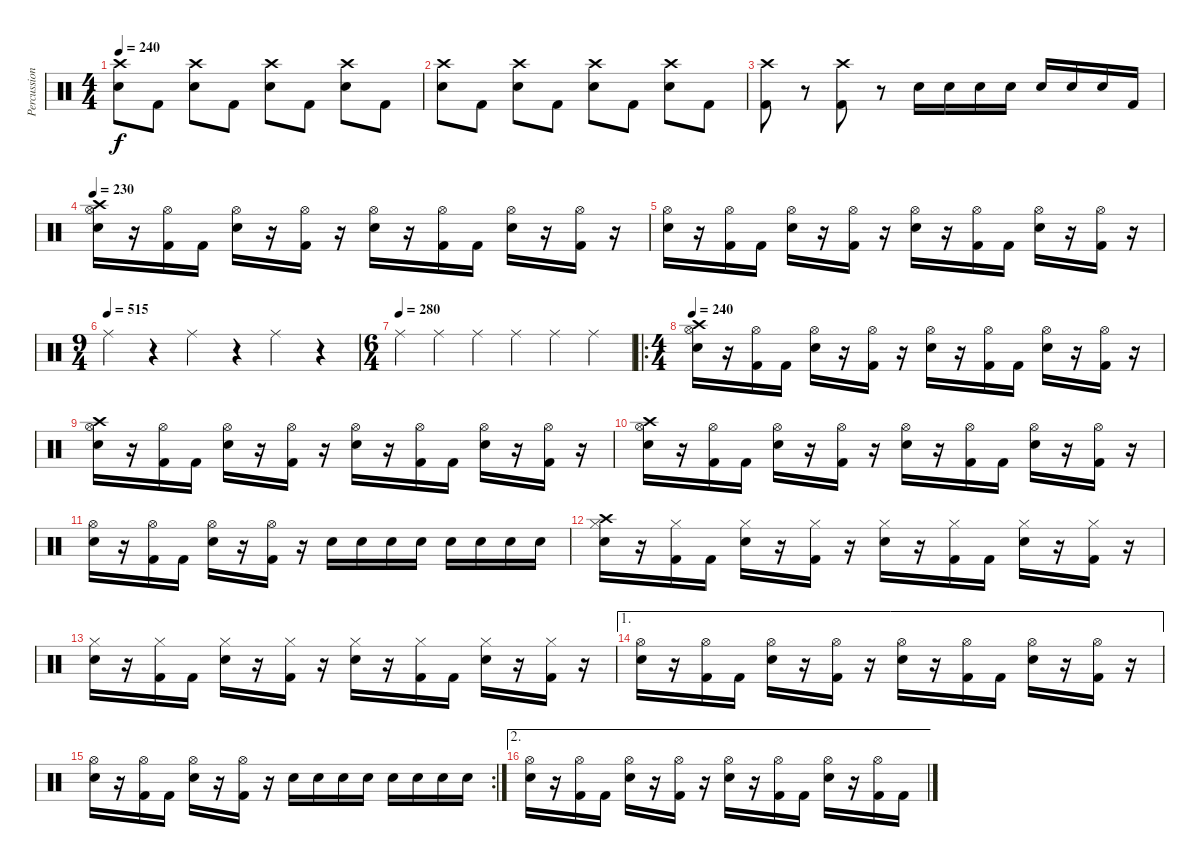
\track ("Percussion" "Percussion") {instrument percussion}
\staff {score}
\articulation defaults
\ts (4 4)
\tempo 240
\clef neutral
\ks c
("Crash high (hit)" "Electric Snare (hit)").8{dy f} "Kick (hit) 2".8 ("Crash high (hit)" "Electric Snare (hit)").8 "Kick (hit) 2".8 ("Crash high (hit)" "Electric Snare (hit)").8 "Kick (hit) 2".8 ("Crash high (hit)" "Electric Snare (hit)").8 "Kick (hit) 2".8 |
("Crash high (hit)" "Electric Snare (hit)").8 "Kick (hit) 2".8 ("Crash high (hit)" "Electric Snare (hit)").8 "Kick (hit) 2".8 ("Crash high (hit)" "Electric Snare (hit)").8 "Kick (hit) 2".8 ("Crash high (hit)" "Electric Snare (hit)").8 "Kick (hit) 2".8 |
("Crash high (hit)" "Kick (hit) 2").8 r.8 ("Crash high (hit)" "Kick (hit) 2").8 r.8 "Electric Snare (hit)".16 "Electric Snare (hit)".16 "Electric Snare (hit)".16 "Electric Snare (hit)".16 "Electric Snare (hit)".16 "Electric Snare (hit)".16 "Electric Snare (hit)".16 "Kick (hit) 2".16 |
\tempo 230
("Crash high (hit)" "Hi-Hat (open)" "Electric Snare (hit)").16 r.16 ("Hi-Hat (open)" "Kick (hit) 2").16 "Kick (hit) 2".16 ("Hi-Hat (open)" "Electric Snare (hit)").16 r.16 ("Hi-Hat (open)" "Kick (hit) 2").16 r.16 ("Hi-Hat (open)" "Electric Snare (hit)").16 r.16 ("Hi-Hat (open)" "Kick (hit) 2").16 "Kick (hit) 2".16 ("Hi-Hat (open)" "Electric Snare (hit)").16 r.16 ("Hi-Hat (open)" "Kick (hit) 2").16 r.16 |
("Hi-Hat (open)" "Electric Snare (hit)").16 r.16 ("Hi-Hat (open)" "Kick (hit) 2").16 "Kick (hit) 2".16 ("Hi-Hat (open)" "Electric Snare (hit)").16 r.16 ("Hi-Hat (open)" "Kick (hit) 2").16 r.16 ("Hi-Hat (open)" "Electric Snare (hit)").16 r.16 ("Hi-Hat (open)" "Kick (hit) 2").16 "Kick (hit) 2".16 ("Hi-Hat (open)" "Electric Snare (hit)").16 r.16 ("Hi-Hat (open)" "Kick (hit) 2").16 r.16 |
\ts (9 4)
\tempo (515)
"Ride (middle)".2 r.4 "Ride (middle)".2 r.4 "Ride (middle)".2 r.4 |
\ts (6 4)
\tempo (280)
"Ride (middle)".4 "Ride (middle)".4 "Ride (middle)".4 "Ride (middle)".4 "Ride (middle)".4 "Ride (middle)".4 |
\ro
\ts (4 4)
\tempo 240
("Crash high (hit)" "Hi-Hat (open)" "Electric Snare (hit)").16 r.16 ("Hi-Hat (open)" "Kick (hit) 2").16 "Kick (hit) 2".16 ("Hi-Hat (open)" "Electric Snare (hit)").16 r.16 ("Hi-Hat (open)" "Kick (hit) 2").16 r.16 ("Hi-Hat (open)" "Electric Snare (hit)").16 r.16 ("Hi-Hat (open)" "Kick (hit) 2").16 "Kick (hit) 2".16 ("Hi-Hat (open)" "Electric Snare (hit)").16 r.16 ("Hi-Hat (open)" "Kick (hit) 2").16 r.16 |
("Crash high (hit)" "Hi-Hat (open)" "Electric Snare (hit)").16 r.16 ("Hi-Hat (open)" "Kick (hit) 2").16 "Kick (hit) 2".16 ("Hi-Hat (open)" "Electric Snare (hit)").16 r.16 ("Hi-Hat (open)" "Kick (hit) 2").16 r.16 ("Hi-Hat (open)" "Electric Snare (hit)").16 r.16 ("Hi-Hat (open)" "Kick (hit) 2").16 "Kick (hit) 2".16 ("Hi-Hat (open)" "Electric Snare (hit)").16 r.16 ("Hi-Hat (open)" "Kick (hit) 2").16 r.16 |
("Crash high (hit)" "Hi-Hat (open)" "Electric Snare (hit)").16 r.16 ("Hi-Hat (open)" "Kick (hit) 2").16 "Kick (hit) 2".16 ("Hi-Hat (open)" "Electric Snare (hit)").16 r.16 ("Hi-Hat (open)" "Kick (hit) 2").16 r.16 ("Hi-Hat (open)" "Electric Snare (hit)").16 r.16 ("Hi-Hat (open)" "Kick (hit) 2").16 "Kick (hit) 2".16 ("Hi-Hat (open)" "Electric Snare (hit)").16 r.16 ("Hi-Hat (open)" "Kick (hit) 2").16 r.16 |
("Hi-Hat (open)" "Electric Snare (hit)").16 r.16 ("Hi-Hat (open)" "Kick (hit) 2").16 "Kick (hit) 2".16 ("Hi-Hat (open)" "Electric Snare (hit)").16 r.16 ("Hi-Hat (open)" "Kick (hit) 2").16 r.16 "Electric Snare (hit)".16 "Electric Snare (hit)".16 "Electric Snare (hit)".16 "Electric Snare (hit)".16 "Electric Snare (hit)".16 "Electric Snare (hit)".16 "Electric Snare (hit)".16 "Electric Snare (hit)".16 |
("Crash high (hit)" "Hi-Hat (closed)" "Electric Snare (hit)").16 r.16 ("Hi-Hat (closed)" "Kick (hit) 2").16 "Kick (hit) 2".16 ("Hi-Hat (closed)" "Electric Snare (hit)").16 r.16 ("Hi-Hat (closed)" "Kick (hit) 2").16 r.16 ("Hi-Hat (closed)" "Electric Snare (hit)").16 r.16 ("Hi-Hat (closed)" "Kick (hit) 2").16 "Kick (hit) 2".16 ("Hi-Hat (closed)" "Electric Snare (hit)").16 r.16 ("Hi-Hat (closed)" "Kick (hit) 2").16 r.16 |
("Hi-Hat (closed)" "Electric Snare (hit)").16 r.16 ("Hi-Hat (closed)" "Kick (hit) 2").16 "Kick (hit) 2".16 ("Hi-Hat (closed)" "Electric Snare (hit)").16 r.16 ("Hi-Hat (closed)" "Kick (hit) 2").16 r.16 ("Hi-Hat (closed)" "Electric Snare (hit)").16 r.16 ("Hi-Hat (closed)" "Kick (hit) 2").16 "Kick (hit) 2".16 ("Hi-Hat (closed)" "Electric Snare (hit)").16 r.16 ("Hi-Hat (closed)" "Kick (hit) 2").16 r.16 |
\ae 1
("Hi-Hat (open)" "Electric Snare (hit)").16 r.16 ("Hi-Hat (open)" "Kick (hit) 2").16 "Kick (hit) 2".16 ("Hi-Hat (open)" "Electric Snare (hit)").16 r.16 ("Hi-Hat (open)" "Kick (hit) 2").16 r.16 ("Hi-Hat (open)" "Electric Snare (hit)").16 r.16 ("Hi-Hat (open)" "Kick (hit) 2").16 "Kick (hit) 2".16 ("Hi-Hat (open)" "Electric Snare (hit)").16 r.16 ("Hi-Hat (open)" "Kick (hit) 2").16 r.16 |
\rc 2
("Hi-Hat (open)" "Electric Snare (hit)").16 r.16 ("Hi-Hat (open)" "Kick (hit) 2").16 "Kick (hit) 2".16 ("Hi-Hat (open)" "Electric Snare (hit)").16 r.16 ("Hi-Hat (open)" "Kick (hit) 2").16 r.16 "Electric Snare (hit)".16 "Electric Snare (hit)".16 "Electric Snare (hit)".16 "Electric Snare (hit)".16 "Electric Snare (hit)".16 "Electric Snare (hit)".16 "Electric Snare (hit)".16 "Electric Snare (hit)".16 |
\ae 2
("Hi-Hat (open)" "Electric Snare (hit)").16 r.16 ("Hi-Hat (open)" "Kick (hit) 2").16 "Kick (hit) 2".16 ("Hi-Hat (open)" "Electric Snare (hit)").16 r.16 ("Hi-Hat (open)" "Kick (hit) 2").16 r.16 ("Hi-Hat (open)" "Electric Snare (hit)").16 r.16 ("Hi-Hat (open)" "Kick (hit) 2").16 "Kick (hit) 2".16 ("Hi-Hat (open)" "Electric Snare (hit)").16 r.16 ("Hi-Hat (open)" "Kick (hit) 2").16 "Kick (hit) 2".16
